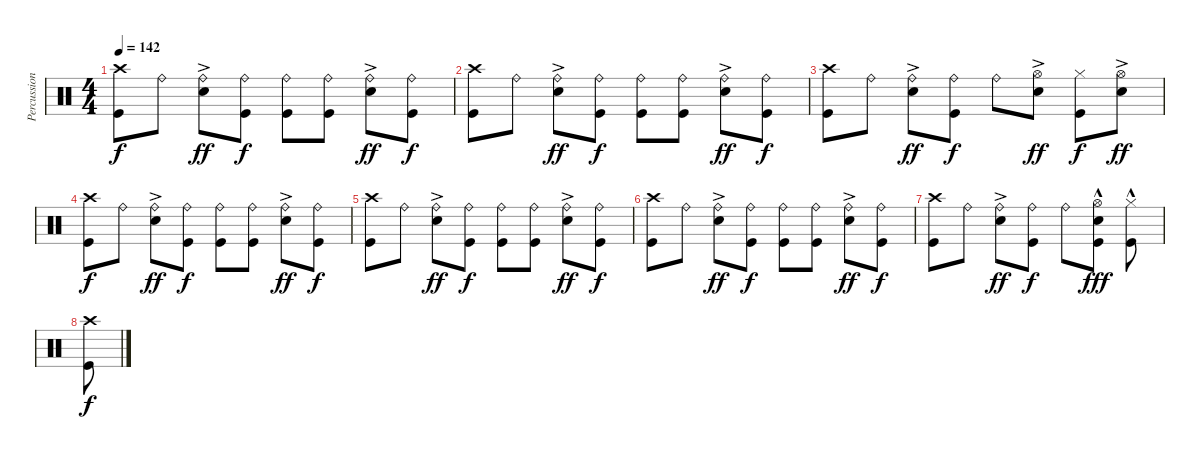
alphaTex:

\track ("Percussion" "Percussion") {instrument percussion}
\staff {score}
\articulation defaults
\ts (4 4)
\tempo 142
\clef neutral
\ks c
("Crash high (hit)" "Kick (hit)").8{dy f} "Ride (bell)".8 ("Ride (bell)" "Electric Snare (hit)"{ac}).8{dy ff} ("Ride (bell)" "Kick (hit)").8{dy f} ("Ride (bell)" "Kick (hit)").8 ("Ride (bell)" "Kick (hit)").8 ("Ride (bell)" "Electric Snare (hit)"{ac}).8{dy ff} ("Ride (bell)" "Kick (hit)").8{dy f} |
("Crash high (hit)" "Kick (hit)").8 "Ride (bell)".8 ("Ride (bell)" "Electric Snare (hit)"{ac}).8{dy ff} ("Ride (bell)" "Kick (hit)").8{dy f} ("Ride (bell)" "Kick (hit)").8 ("Ride (bell)" "Kick (hit)").8 ("Ride (bell)" "Electric Snare (hit)"{ac}).8{dy ff} ("Ride (bell)" "Kick (hit)").8{dy f} |
("Crash high (hit)" "Kick (hit)").8 "Ride (bell)".8 ("Ride (bell)" "Electric Snare (hit)"{ac}).8{dy ff} ("Ride (bell)" "Kick (hit)").8{dy f} "Ride (bell)".8 ("Hi-Hat (open)" "Electric Snare (hit)"{ac}).8{dy ff} ("Hi-Hat (closed)" "Kick (hit)").8{dy f} ("Hi-Hat (open)" "Electric Snare (hit)"{ac}).8{dy ff} |
("Crash high (hit)" "Kick (hit)").8{dy f} "Ride (bell)".8 ("Ride (bell)" "Electric Snare (hit)"{ac}).8{dy ff} ("Ride (bell)" "Kick (hit)").8{dy f} ("Ride (bell)" "Kick (hit)").8 ("Ride (bell)" "Kick (hit)").8 ("Ride (bell)" "Electric Snare (hit)"{ac}).8{dy ff} ("Ride (bell)" "Kick (hit)").8{dy f} |
("Crash high (hit)" "Kick (hit)").8 "Ride (bell)".8 ("Ride (bell)" "Electric Snare (hit)"{ac}).8{dy ff} ("Ride (bell)" "Kick (hit)").8{dy f} ("Ride (bell)" "Kick (hit)").8 ("Ride (bell)" "Kick (hit)").8 ("Ride (bell)" "Electric Snare (hit)"{ac}).8{dy ff} ("Ride (bell)" "Kick (hit)").8{dy f} |
("Crash high (hit)" "Kick (hit)").8 "Ride (bell)".8 ("Ride (bell)" "Electric Snare (hit)"{ac}).8{dy ff} ("Ride (bell)" "Kick (hit)").8{dy f} ("Ride (bell)" "Kick (hit)").8 ("Ride (bell)" "Kick (hit)").8 ("Ride (bell)" "Electric Snare (hit)"{ac}).8{dy ff} ("Ride (bell)" "Kick (hit)").8{dy f} |
("Crash high (hit)" "Kick (hit)").8 "Ride (bell)".8 ("Ride (bell)" "Electric Snare (hit)"{ac}).8{dy ff} ("Ride (bell)" "Kick (hit)").8{dy f} "Ride (bell)".8 ("Hi-Hat (open)" "Electric Snare (hit)"{hac} "Kick (hit)").8{dy fff} ("Hi-Hat (closed)" "Kick (hit)"{hac}).8 |
("Crash high (hit)" "Kick (hit)").8{dy f}
